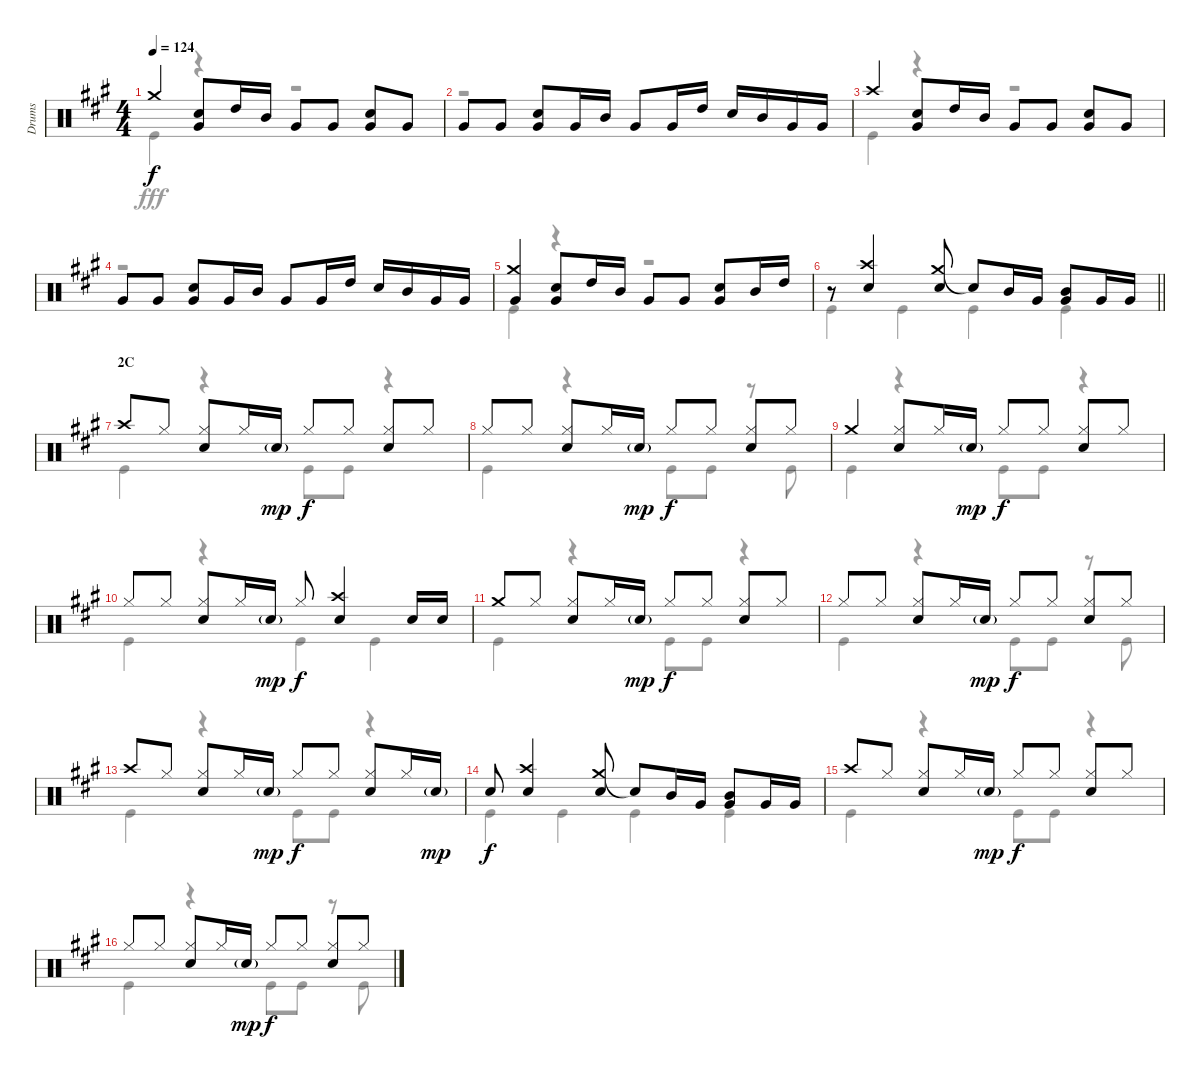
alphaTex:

\track ("Drums" "Drums") {instrument percussion}
\staff {score}
\articulation defaults
\voice
\ts (4 4)
\tempo 124
\clef neutral
\ks a "Crash medium (hit)".4{dy f}
("Snare (hit) 2" "Very Low Tom (hit)").8 "High Tom (hit)".16 "Mid Tom (hit)".16 "Very Low Tom (hit)".8 "Very Low Tom (hit)".8 ("Very Low Tom (hit)" "Snare (hit) 2").8 "Very Low Tom (hit)".8 |
"Very Low Tom (hit)".8 "Very Low Tom (hit)".8 ("Snare (hit) 2" "Very Low Tom (hit)").8 "Very Low Tom (hit)".16 "Mid Tom (hit)".16 "Very Low Tom (hit)".8 "Very Low Tom (hit)".16 "High Tom (hit)".16 "Snare (hit) 2".16 "Mid Tom (hit)".16 "Very Low Tom (hit)".16 "Very Low Tom (hit)".16 |
"Crash high (hit)".4 ("Snare (hit) 2" "Very Low Tom (hit)").8 "High Tom (hit)".16 "Mid Tom (hit)".16 "Very Low Tom (hit)".8 "Very Low Tom (hit)".8 ("Very Low Tom (hit)" "Snare (hit) 2").8 "Very Low Tom (hit)".8 |
"Very Low Tom (hit)".8 "Very Low Tom (hit)".8 ("Snare (hit) 2" "Very Low Tom (hit)").8 "Very Low Tom (hit)".16 "Mid Tom (hit)".16 "Very Low Tom (hit)".8 "Very Low Tom (hit)".16 "High Tom (hit)".16 "Snare (hit) 2".16 "Mid Tom (hit)".16 "Very Low Tom (hit)".16 "Very Low Tom (hit)".16 |
("Crash medium (hit)" "Very Low Tom (hit)").4 ("Very Low Tom (hit)" "Snare (hit) 2").8 "High Tom (hit)".16 "Mid Tom (hit)".16 "Very Low Tom (hit)".8 "Very Low Tom (hit)".8 ("Snare (hit) 2" "Very Low Tom (hit)").8 "Mid Tom (hit)".16 "High Tom (hit)".16 |
\barLineRight lightlight
r.8 ("Crash high (hit)" "Snare (hit) 2").4 ("Crash medium (hit)" "Snare (hit) 2").8 "Snare (hit)"{t}.8 "Mid Tom (hit)".16 "Very Low Tom (hit)".16 ("Mid Tom (hit)" "Very Low Tom (hit)").8 "Very Low Tom (hit)".16 "Very Low Tom (hit)".16 |
\section ("" "2C")
"Crash high (hit)".8 "Hi-Hat (closed)".8 ("Hi-Hat (closed)" "Snare (hit) 2").8 "Hi-Hat (closed)".16 "Snare (hit) 2"{g}.16{dy mp} "Hi-Hat (closed)".8{dy f} "Hi-Hat (closed)".8 ("Hi-Hat (closed)" "Snare (hit) 2").8 "Hi-Hat (closed)".8 |
"Hi-Hat (closed)".8 "Hi-Hat (closed)".8 ("Hi-Hat (closed)" "Snare (hit) 2").8 "Hi-Hat (closed)".16 "Snare (hit) 2"{g}.16{dy mp} "Hi-Hat (closed)".8{dy f} "Hi-Hat (closed)".8 ("Hi-Hat (closed)" "Snare (hit) 2").8 "Hi-Hat (closed)".8 |
"Crash medium (hit)".4 ("Hi-Hat (closed)" "Snare (hit) 2").8 "Hi-Hat (closed)".16 "Snare (hit) 2"{g}.16{dy mp} "Hi-Hat (closed)".8{dy f} "Hi-Hat (closed)".8 ("Hi-Hat (closed)" "Snare (hit) 2").8 "Hi-Hat (closed)".8 |
"Hi-Hat (closed)".8 "Hi-Hat (closed)".8 ("Hi-Hat (closed)" "Snare (hit) 2").8 "Hi-Hat (closed)".16 "Snare (hit) 2"{g}.16{dy mp} "Hi-Hat (closed)".8{dy f} ("Crash high (hit)" "Snare (hit) 2").4 "Snare (hit) 2".16 "Snare (hit) 2".16 |
"Crash medium (hit)".8 "Hi-Hat (closed)".8 ("Hi-Hat (closed)" "Snare (hit) 2").8 "Hi-Hat (closed)".16 "Snare (hit) 2"{g}.16{dy mp} "Hi-Hat (closed)".8{dy f} "Hi-Hat (closed)".8 ("Hi-Hat (closed)" "Snare (hit) 2").8 "Hi-Hat (closed)".8 |
"Hi-Hat (closed)".8 "Hi-Hat (closed)".8 ("Hi-Hat (closed)" "Snare (hit) 2").8 "Hi-Hat (closed)".16 "Snare (hit) 2"{g}.16{dy mp} "Hi-Hat (closed)".8{dy f} "Hi-Hat (closed)".8 ("Hi-Hat (closed)" "Snare (hit) 2").8 "Hi-Hat (closed)".8 |
"Crash high (hit)".8 "Hi-Hat (closed)".8 ("Hi-Hat (closed)" "Snare (hit) 2").8 "Hi-Hat (closed)".16 "Snare (hit) 2"{g}.16{dy mp} "Hi-Hat (closed)".8{dy f} "Hi-Hat (closed)".8 ("Hi-Hat (closed)" "Snare (hit) 2").8 "Hi-Hat (closed)".16 "Snare (hit) 2"{g}.16{dy mp} |
"Snare (hit) 2".8{dy f} ("Crash high (hit)" "Snare (hit) 2").4 ("Crash medium (hit)" "Snare (hit) 2").8 "Snare (hit)"{t}.8 "Mid Tom (hit)".16 "Very Low Tom (hit)".16 ("Mid Tom (hit)" "Very Low Tom (hit)").8 "Very Low Tom (hit)".16 "Very Low Tom (hit)".16 |
"Crash high (hit)".8 "Hi-Hat (closed)".8 ("Hi-Hat (closed)" "Snare (hit) 2").8 "Hi-Hat (closed)".16 "Snare (hit) 2"{g}.16{dy mp} "Hi-Hat (closed)".8{dy f} "Hi-Hat (closed)".8 ("Hi-Hat (closed)" "Snare (hit) 2").8 "Hi-Hat (closed)".8 |
"Hi-Hat (closed)".8 "Hi-Hat (closed)".8 ("Hi-Hat (closed)" "Snare (hit) 2").8 "Hi-Hat (closed)".16 "Snare (hit) 2"{g}.16{dy mp} "Hi-Hat (closed)".8{dy f} "Hi-Hat (closed)".8 ("Hi-Hat (closed)" "Snare (hit) 2").8 "Hi-Hat (closed)".8
\voice
\clef neutral
\ottava regular
\simile none
\ks a "Kick (hit)".4{dy fff}
r.4 r.2 |
r.1 |
"Kick (hit)".4 r.4 r.2 |
r.1 |
"Kick (hit)".4 r.4 r.2 |
\barLineRight lightlight "Kick (hit)".4 "Kick (hit)".4 "Kick (hit)".4 "Kick (hit)".4
|
"Kick (hit)".4 r.4 "Kick (hit)".8 "Kick (hit)".8 r.4 |
"Kick (hit)".4 r.4 "Kick (hit)".8 "Kick (hit)".8 r.8 "Kick (hit)".8 |
"Kick (hit)".4 r.4 "Kick (hit)".8 "Kick (hit)".8 r.4 |
"Kick (hit)".4 r.4 "Kick (hit)".4 "Kick (hit)".4 |
"Kick (hit)".4 r.4 "Kick (hit)".8 "Kick (hit)".8 r.4 |
"Kick (hit)".4 r.4 "Kick (hit)".8 "Kick (hit)".8 r.8 "Kick (hit)".8 |
"Kick (hit)".4 r.4 "Kick (hit)".8 "Kick (hit)".8 r.4 |
"Kick (hit)".4 "Kick (hit)".4 "Kick (hit)".4 "Kick (hit)".4 |
"Kick (hit)".4 r.4 "Kick (hit)".8 "Kick (hit)".8 r.4 |
"Kick (hit)".4 r.4 "Kick (hit)".8 "Kick (hit)".8 r.8 "Kick (hit)".8
